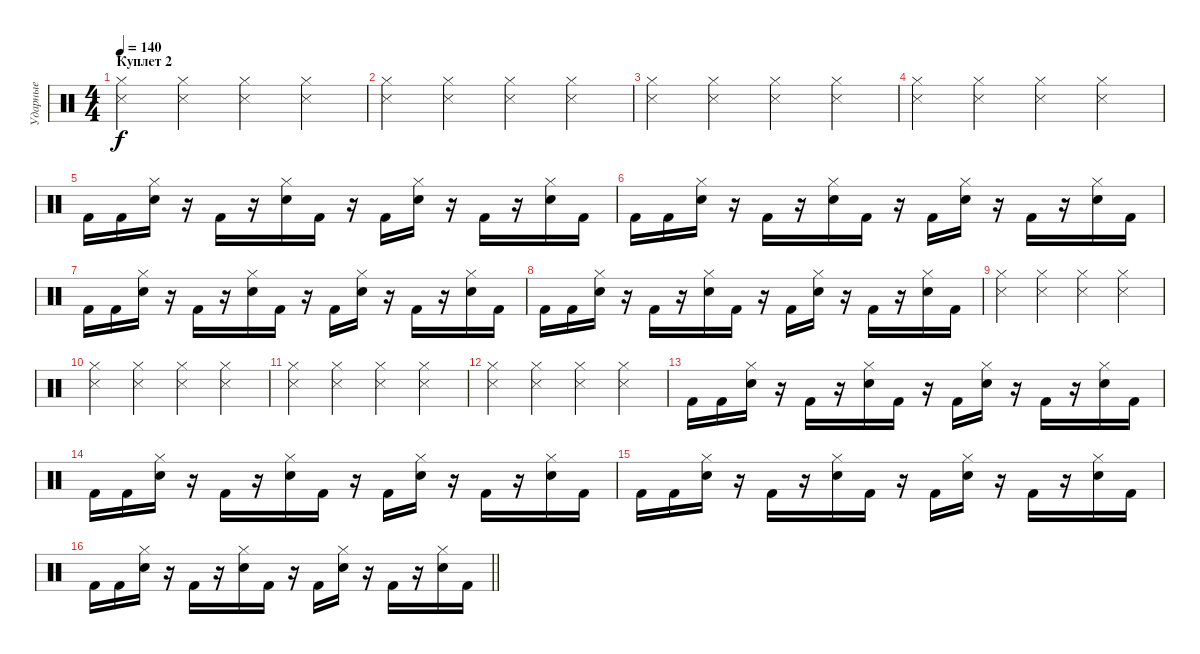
\track ("Ударные" "Ударные") {instrument percussion}
\staff {score}
\articulation defaults
\ts (4 4)
\section ("" "Куплет 2")
\tempo 140
\clef neutral
\ks c
("Hi-Hat (closed)" "Snare (side stick) 3").4{dy f} ("Hi-Hat (closed)" "Snare (side stick) 3").4 ("Hi-Hat (closed)" "Snare (side stick) 3").4 ("Hi-Hat (closed)" "Snare (side stick) 3").4 |
("Hi-Hat (closed)" "Snare (side stick) 3").4 ("Hi-Hat (closed)" "Snare (side stick) 3").4 ("Hi-Hat (closed)" "Snare (side stick) 3").4 ("Hi-Hat (closed)" "Snare (side stick) 3").4 |
("Hi-Hat (closed)" "Snare (side stick) 3").4 ("Hi-Hat (closed)" "Snare (side stick) 3").4 ("Hi-Hat (closed)" "Snare (side stick) 3").4 ("Hi-Hat (closed)" "Snare (side stick) 3").4 |
("Hi-Hat (closed)" "Snare (side stick) 3").4 ("Hi-Hat (closed)" "Snare (side stick) 3").4 ("Hi-Hat (closed)" "Snare (side stick) 3").4 ("Hi-Hat (closed)" "Snare (side stick) 3").4 |
"Kick (hit) 2".16 "Kick (hit) 2".16 ("Snare (hit) 2" "Hi-Hat (closed)").16 r.16 "Kick (hit) 2".16 r.16 ("Snare (hit) 2" "Hi-Hat (closed)").16 "Kick (hit) 2".16 r.16 "Kick (hit) 2".16 ("Snare (hit) 2" "Hi-Hat (closed)").16 r.16 "Kick (hit) 2".16 r.16 ("Snare (hit) 2" "Hi-Hat (closed)").16 "Kick (hit) 2".16 |
"Kick (hit) 2".16 "Kick (hit) 2".16 ("Snare (hit) 2" "Hi-Hat (closed)").16 r.16 "Kick (hit) 2".16 r.16 ("Snare (hit) 2" "Hi-Hat (closed)").16 "Kick (hit) 2".16 r.16 "Kick (hit) 2".16 ("Snare (hit) 2" "Hi-Hat (closed)").16 r.16 "Kick (hit) 2".16 r.16 ("Snare (hit) 2" "Hi-Hat (closed)").16 "Kick (hit) 2".16 |
"Kick (hit) 2".16 "Kick (hit) 2".16 ("Snare (hit) 2" "Hi-Hat (closed)").16 r.16 "Kick (hit) 2".16 r.16 ("Snare (hit) 2" "Hi-Hat (closed)").16 "Kick (hit) 2".16 r.16 "Kick (hit) 2".16 ("Snare (hit) 2" "Hi-Hat (closed)").16 r.16 "Kick (hit) 2".16 r.16 ("Snare (hit) 2" "Hi-Hat (closed)").16 "Kick (hit) 2".16 |
"Kick (hit) 2".16 "Kick (hit) 2".16 ("Snare (hit) 2" "Hi-Hat (closed)").16 r.16 "Kick (hit) 2".16 r.16 ("Snare (hit) 2" "Hi-Hat (closed)").16 "Kick (hit) 2".16 r.16 "Kick (hit) 2".16 ("Snare (hit) 2" "Hi-Hat (closed)").16 r.16 "Kick (hit) 2".16 r.16 ("Snare (hit) 2" "Hi-Hat (closed)").16 "Kick (hit) 2".16 |
("Hi-Hat (closed)" "Snare (side stick) 3").4 ("Hi-Hat (closed)" "Snare (side stick) 3").4 ("Hi-Hat (closed)" "Snare (side stick) 3").4 ("Hi-Hat (closed)" "Snare (side stick) 3").4 |
("Hi-Hat (closed)" "Snare (side stick) 3").4 ("Hi-Hat (closed)" "Snare (side stick) 3").4 ("Hi-Hat (closed)" "Snare (side stick) 3").4 ("Hi-Hat (closed)" "Snare (side stick) 3").4 |
("Hi-Hat (closed)" "Snare (side stick) 3").4 ("Hi-Hat (closed)" "Snare (side stick) 3").4 ("Hi-Hat (closed)" "Snare (side stick) 3").4 ("Hi-Hat (closed)" "Snare (side stick) 3").4 |
("Hi-Hat (closed)" "Snare (side stick) 3").4 ("Hi-Hat (closed)" "Snare (side stick) 3").4 ("Hi-Hat (closed)" "Snare (side stick) 3").4 ("Hi-Hat (closed)" "Snare (side stick) 3").4 |
"Kick (hit) 2".16 "Kick (hit) 2".16 ("Snare (hit) 2" "Hi-Hat (closed)").16 r.16 "Kick (hit) 2".16 r.16 ("Snare (hit) 2" "Hi-Hat (closed)").16 "Kick (hit) 2".16 r.16 "Kick (hit) 2".16 ("Snare (hit) 2" "Hi-Hat (closed)").16 r.16 "Kick (hit) 2".16 r.16 ("Snare (hit) 2" "Hi-Hat (closed)").16 "Kick (hit) 2".16 |
"Kick (hit) 2".16 "Kick (hit) 2".16 ("Snare (hit) 2" "Hi-Hat (closed)").16 r.16 "Kick (hit) 2".16 r.16 ("Snare (hit) 2" "Hi-Hat (closed)").16 "Kick (hit) 2".16 r.16 "Kick (hit) 2".16 ("Snare (hit) 2" "Hi-Hat (closed)").16 r.16 "Kick (hit) 2".16 r.16 ("Snare (hit) 2" "Hi-Hat (closed)").16 "Kick (hit) 2".16 |
"Kick (hit) 2".16 "Kick (hit) 2".16 ("Snare (hit) 2" "Hi-Hat (closed)").16 r.16 "Kick (hit) 2".16 r.16 ("Snare (hit) 2" "Hi-Hat (closed)").16 "Kick (hit) 2".16 r.16 "Kick (hit) 2".16 ("Snare (hit) 2" "Hi-Hat (closed)").16 r.16 "Kick (hit) 2".16 r.16 ("Snare (hit) 2" "Hi-Hat (closed)").16 "Kick (hit) 2".16 |
\barLineRight lightlight "Kick (hit) 2".16 "Kick (hit) 2".16
("Snare (hit) 2" "Hi-Hat (closed)").16 r.16 "Kick (hit) 2".16 r.16 ("Snare (hit) 2" "Hi-Hat (closed)").16 "Kick (hit) 2".16 r.16 "Kick (hit) 2".16 ("Snare (hit) 2" "Hi-Hat (closed)").16 r.16 "Kick (hit) 2".16 r.16 ("Snare (hit) 2" "Hi-Hat (closed)").16 "Kick (hit) 2".16
